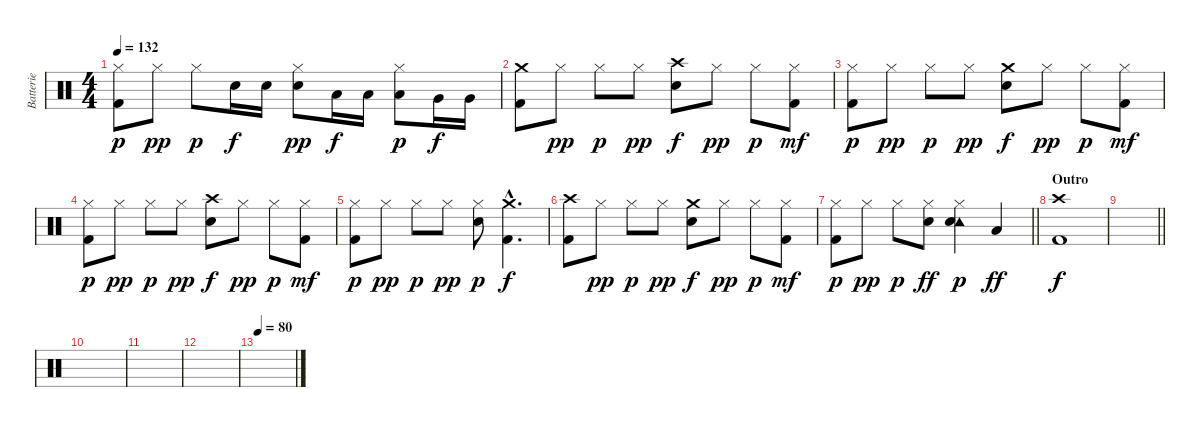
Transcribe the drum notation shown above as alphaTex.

\track ("Batterie" "Batterie") {instrument percussion}
\staff {score}
\articulation defaults
\ts (4 4)
\tempo 132
\clef neutral
\ks c
("Hi-Hat (closed)" "Kick (hit) 2").8{dy p} "Hi-Hat (closed)".8{dy pp} "Hi-Hat (closed)".8{dy p} "Electric Snare (hit)".16{dy f} "Electric Snare (hit)".16 ("Hi-Hat (closed)" "Electric Snare (hit)").8{dy pp} "Low Tom (hit)".16{dy f} "Low Tom (hit)".16 ("Hi-Hat (closed)" "Low Tom (hit)").8{dy p} "Very Low Tom (hit)".16{dy f} "Very Low Tom (hit)".16 |
("Crash medium (hit)" "Kick (hit) 2").8 "Hi-Hat (closed)".8{dy pp} "Hi-Hat (closed)".8{dy p} "Hi-Hat (closed)".8{dy pp} ("Crash high (hit)" "Electric Snare (hit)").8{dy f} "Hi-Hat (closed)".8{dy pp} "Hi-Hat (closed)".8{dy p} ("Hi-Hat (closed)" "Kick (hit) 2").8{dy mf} |
("Hi-Hat (closed)" "Kick (hit) 2").8{dy p} "Hi-Hat (closed)".8{dy pp} "Hi-Hat (closed)".8{dy p} "Hi-Hat (closed)".8{dy pp} ("Crash medium (hit)" "Electric Snare (hit)").8{dy f} "Hi-Hat (closed)".8{dy pp} "Hi-Hat (closed)".8{dy p} ("Hi-Hat (closed)" "Kick (hit) 2").8{dy mf} |
("Hi-Hat (closed)" "Kick (hit) 2").8{dy p} "Hi-Hat (closed)".8{dy pp} "Hi-Hat (closed)".8{dy p} "Hi-Hat (closed)".8{dy pp} ("Crash high (hit)" "Electric Snare (hit)").8{dy f} "Hi-Hat (closed)".8{dy pp} "Hi-Hat (closed)".8{dy p} ("Hi-Hat (closed)" "Kick (hit) 2").8{dy mf} |
("Hi-Hat (closed)" "Kick (hit) 2").8{dy p} "Hi-Hat (closed)".8{dy pp} "Hi-Hat (closed)".8{dy p} "Hi-Hat (closed)".8{dy pp} ("Hi-Hat (closed)" "Electric Snare (hit)").8{dy p} ("Crash medium (hit)"{hac} "Kick (hit) 2"{hac}).4{d dy f} |
("Crash high (hit)" "Kick (hit) 2").8 "Hi-Hat (closed)".8{dy pp} "Hi-Hat (closed)".8{dy p} "Hi-Hat (closed)".8{dy pp} ("Crash medium (hit)" "Electric Snare (hit)").8{dy f} "Hi-Hat (closed)".8{dy pp} "Hi-Hat (closed)".8{dy p} ("Hi-Hat (closed)" "Kick (hit) 2").8{dy mf} |
\barLineRight lightlight
("Hi-Hat (closed)" "Kick (hit) 2").8{dy p} "Hi-Hat (closed)".8{dy pp} "Hi-Hat (closed)".8{dy p} ("Hi-Hat (closed)" "Electric Snare (hit)").8{dy ff} ("Hi-Hat (closed)" "Tambourine (hit)" "Electric Snare (hit)").4{dy p} "Low Floor Tom (hit)".4{dy ff} |
\section ("" "Outro")
("Crash high (hit)" "Kick (hit) 2").1{dy f} |
\barLineRight lightlight
|
|
|
|
\tempo 80
